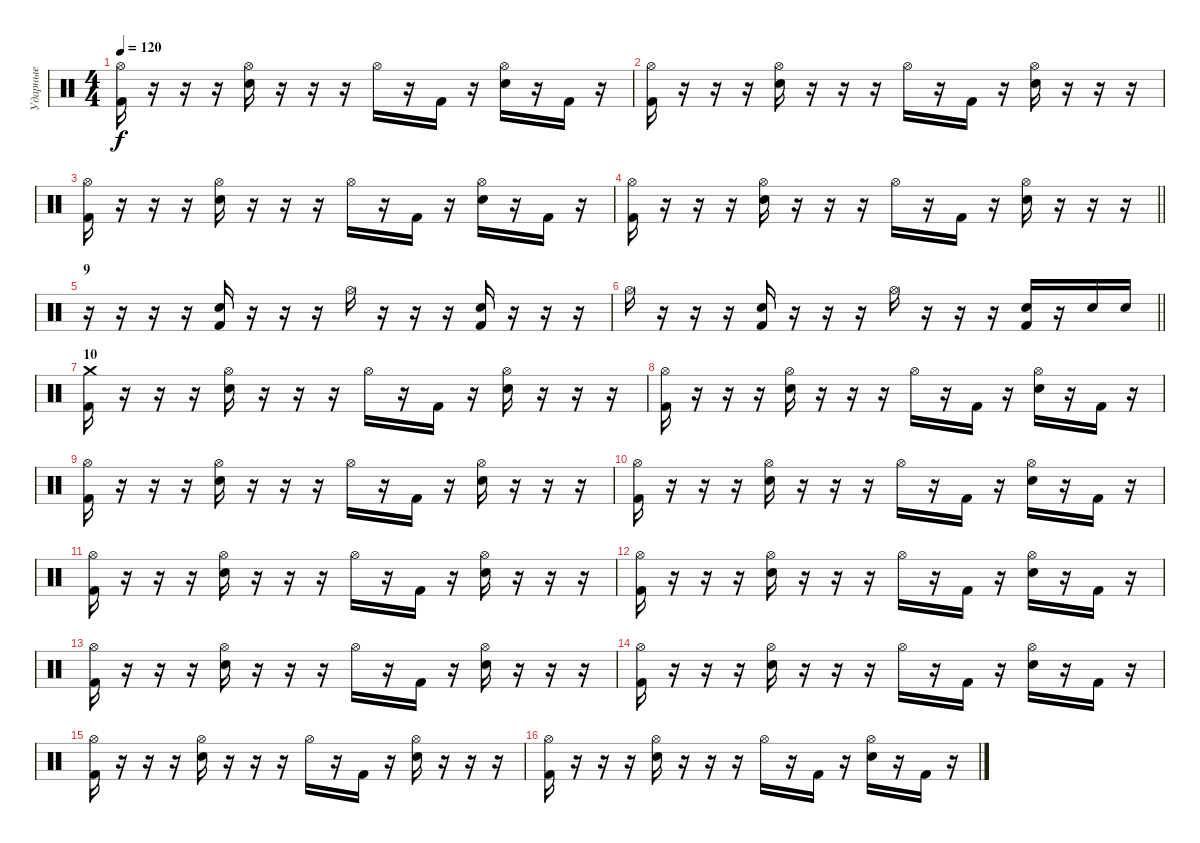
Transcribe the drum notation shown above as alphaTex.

\track ("Ударные" "Ударные") {instrument percussion}
\staff {score}
\articulation defaults
\ts (4 4)
\tempo 120
\clef neutral
\ks c
("Hi-Hat (open)" "Kick (hit) 2").16{dy f} r.16 r.16 r.16 ("Hi-Hat (open)" "Snare (hit) 2").16 r.16 r.16 r.16 "Hi-Hat (open)".16 r.16 "Kick (hit) 2".16 r.16 ("Hi-Hat (open)" "Snare (hit) 2").16 r.16 "Kick (hit) 2".16 r.16 |
("Hi-Hat (open)" "Kick (hit) 2").16 r.16 r.16 r.16 ("Hi-Hat (open)" "Snare (hit) 2").16 r.16 r.16 r.16 "Hi-Hat (open)".16 r.16 "Kick (hit) 2".16 r.16 ("Hi-Hat (open)" "Snare (hit) 2").16 r.16 r.16 r.16 |
("Hi-Hat (open)" "Kick (hit) 2").16 r.16 r.16 r.16 ("Hi-Hat (open)" "Snare (hit) 2").16 r.16 r.16 r.16 "Hi-Hat (open)".16 r.16 "Kick (hit) 2".16 r.16 ("Hi-Hat (open)" "Snare (hit) 2").16 r.16 "Kick (hit) 2".16 r.16 |
\barLineRight lightlight
("Hi-Hat (open)" "Kick (hit) 2").16 r.16 r.16 r.16 ("Hi-Hat (open)" "Snare (hit) 2").16 r.16 r.16 r.16 "Hi-Hat (open)".16 r.16 "Kick (hit) 2".16 r.16 ("Hi-Hat (open)" "Snare (hit) 2").16 r.16 r.16 r.16 |
\section ("" "9")
r.16 r.16 r.16 r.16 ("Snare (hit) 2" "Kick (hit) 2").16 r.16 r.16 r.16 "Hi-Hat (open)".16 r.16 r.16 r.16 ("Snare (hit) 2" "Kick (hit) 2").16 r.16 r.16 r.16 |
\barLineRight lightlight "Hi-Hat (open)".16
r.16 r.16 r.16 ("Snare (hit) 2" "Kick (hit) 2").16 r.16 r.16 r.16 "Hi-Hat (open)".16 r.16 r.16 r.16 ("Snare (hit) 2" "Kick (hit) 2").16 r.16 "Snare (hit) 2".16 "Snare (hit) 2".16 |
\section ("" "10")
("Crash medium (hit)" "Kick (hit) 2").16 r.16 r.16 r.16 ("Hi-Hat (open)" "Snare (hit) 2").16 r.16 r.16 r.16 "Hi-Hat (open)".16 r.16 "Kick (hit) 2".16 r.16 ("Hi-Hat (open)" "Snare (hit) 2").16 r.16 r.16 r.16 |
("Hi-Hat (open)" "Kick (hit) 2").16 r.16 r.16 r.16 ("Hi-Hat (open)" "Snare (hit) 2").16 r.16 r.16 r.16 "Hi-Hat (open)".16 r.16 "Kick (hit) 2".16 r.16 ("Hi-Hat (open)" "Snare (hit) 2").16 r.16 "Kick (hit) 2".16 r.16 |
("Hi-Hat (open)" "Kick (hit) 2").16 r.16 r.16 r.16 ("Hi-Hat (open)" "Snare (hit) 2").16 r.16 r.16 r.16 "Hi-Hat (open)".16 r.16 "Kick (hit) 2".16 r.16 ("Hi-Hat (open)" "Snare (hit) 2").16 r.16 r.16 r.16 |
("Hi-Hat (open)" "Kick (hit) 2").16 r.16 r.16 r.16 ("Hi-Hat (open)" "Snare (hit) 2").16 r.16 r.16 r.16 "Hi-Hat (open)".16 r.16 "Kick (hit) 2".16 r.16 ("Hi-Hat (open)" "Snare (hit) 2").16 r.16 "Kick (hit) 2".16 r.16 |
("Hi-Hat (open)" "Kick (hit) 2").16 r.16 r.16 r.16 ("Hi-Hat (open)" "Snare (hit) 2").16 r.16 r.16 r.16 "Hi-Hat (open)".16 r.16 "Kick (hit) 2".16 r.16 ("Hi-Hat (open)" "Snare (hit) 2").16 r.16 r.16 r.16 |
("Hi-Hat (open)" "Kick (hit) 2").16 r.16 r.16 r.16 ("Hi-Hat (open)" "Snare (hit) 2").16 r.16 r.16 r.16 "Hi-Hat (open)".16 r.16 "Kick (hit) 2".16 r.16 ("Hi-Hat (open)" "Snare (hit) 2").16 r.16 "Kick (hit) 2".16 r.16 |
("Hi-Hat (open)" "Kick (hit) 2").16 r.16 r.16 r.16 ("Hi-Hat (open)" "Snare (hit) 2").16 r.16 r.16 r.16 "Hi-Hat (open)".16 r.16 "Kick (hit) 2".16 r.16 ("Hi-Hat (open)" "Snare (hit) 2").16 r.16 r.16 r.16 |
("Hi-Hat (open)" "Kick (hit) 2").16 r.16 r.16 r.16 ("Hi-Hat (open)" "Snare (hit) 2").16 r.16 r.16 r.16 "Hi-Hat (open)".16 r.16 "Kick (hit) 2".16 r.16 ("Hi-Hat (open)" "Snare (hit) 2").16 r.16 "Kick (hit) 2".16 r.16 |
("Hi-Hat (open)" "Kick (hit) 2").16 r.16 r.16 r.16 ("Hi-Hat (open)" "Snare (hit) 2").16 r.16 r.16 r.16 "Hi-Hat (open)".16 r.16 "Kick (hit) 2".16 r.16 ("Hi-Hat (open)" "Snare (hit) 2").16 r.16 r.16 r.16 |
("Hi-Hat (open)" "Kick (hit) 2").16 r.16 r.16 r.16 ("Hi-Hat (open)" "Snare (hit) 2").16 r.16 r.16 r.16 "Hi-Hat (open)".16 r.16 "Kick (hit) 2".16 r.16 ("Hi-Hat (open)" "Snare (hit) 2").16 r.16 "Kick (hit) 2".16 r.16
